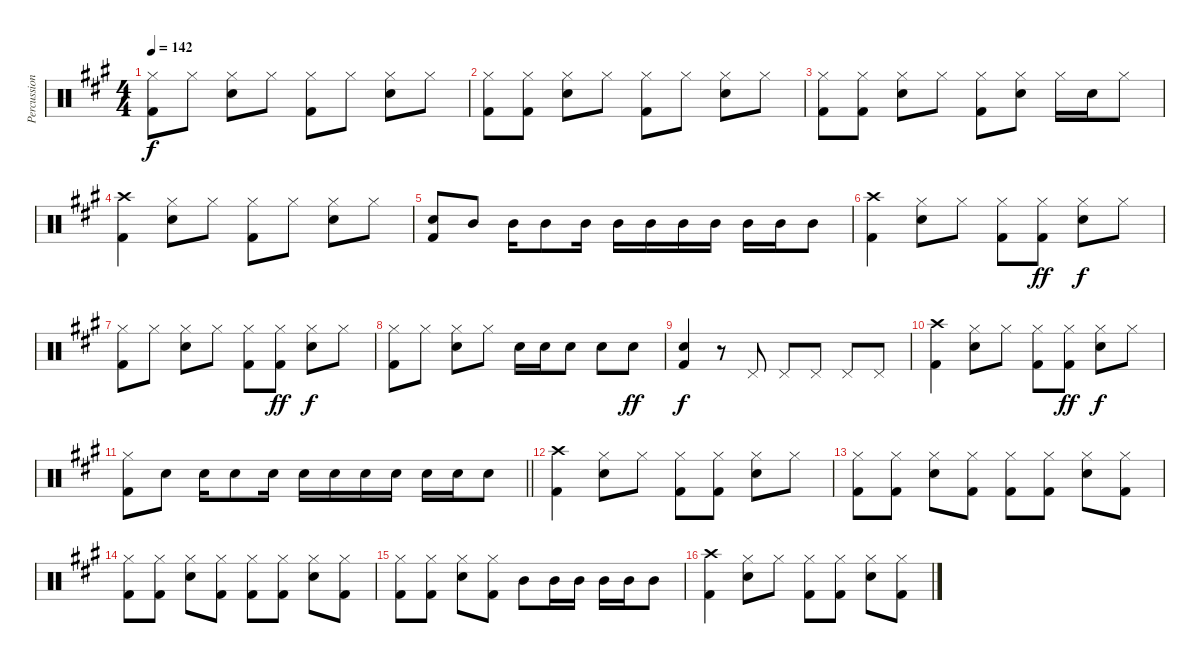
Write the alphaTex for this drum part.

\track ("Percussion" "Percussion") {instrument percussion}
\staff {score}
\articulation defaults
\ts (4 4)
\tempo 142
\clef neutral
\ks a
("Hi-Hat (closed)" "Kick (hit) 2").8{dy f} "Hi-Hat (closed)".8 ("Hi-Hat (closed)" "Snare (hit) 2").8 "Hi-Hat (closed)".8 ("Hi-Hat (closed)" "Kick (hit) 2").8 "Hi-Hat (closed)".8 ("Hi-Hat (closed)" "Snare (hit) 2").8 "Hi-Hat (closed)".8 |
("Hi-Hat (closed)" "Kick (hit) 2").8 ("Hi-Hat (closed)" "Kick (hit) 2").8 ("Hi-Hat (closed)" "Snare (hit) 2").8 "Hi-Hat (closed)".8 ("Hi-Hat (closed)" "Kick (hit) 2").8 "Hi-Hat (closed)".8 ("Hi-Hat (closed)" "Snare (hit) 2").8 "Hi-Hat (closed)".8 |
("Hi-Hat (closed)" "Kick (hit) 2").8 ("Hi-Hat (closed)" "Kick (hit) 2").8 ("Hi-Hat (closed)" "Snare (hit) 2").8 "Hi-Hat (closed)".8 ("Hi-Hat (closed)" "Kick (hit) 2").8 ("Hi-Hat (closed)" "Snare (hit) 2").8 "Hi-Hat (closed)".16 "Snare (hit) 2".16 "Hi-Hat (closed)".8 |
("Crash high (hit)" "Kick (hit) 2").4 ("Hi-Hat (closed)" "Snare (hit) 2").8 "Hi-Hat (closed)".8 ("Hi-Hat (closed)" "Kick (hit) 2").8 "Hi-Hat (closed)".8 ("Hi-Hat (closed)" "Snare (hit) 2").8 "Hi-Hat (closed)".8 |
("Snare (hit) 2" "Kick (hit) 2").8 "Mid Tom (hit)".8 "Mid Tom (hit)".16 "Mid Tom (hit)".8 "Mid Tom (hit)".16 "Mid Tom (hit)".16 "Mid Tom (hit)".16 "Mid Tom (hit)".16 "Mid Tom (hit)".16 "Mid Tom (hit)".16 "Mid Tom (hit)".16 "Mid Tom (hit)".8 |
("Crash high (hit)" "Kick (hit) 2").4 ("Hi-Hat (closed)" "Snare (hit) 2").8 "Hi-Hat (closed)".8 ("Hi-Hat (closed)" "Kick (hit) 2").8 ("Hi-Hat (closed)" "Kick (hit) 2").8{dy ff} ("Hi-Hat (closed)" "Snare (hit) 2").8{dy f} "Hi-Hat (closed)".8 |
("Hi-Hat (closed)" "Kick (hit) 2").8 "Hi-Hat (closed)".8 ("Hi-Hat (closed)" "Snare (hit) 2").8 "Hi-Hat (closed)".8 ("Hi-Hat (closed)" "Kick (hit) 2").8 ("Hi-Hat (closed)" "Kick (hit) 2").8{dy ff} ("Hi-Hat (closed)" "Snare (hit) 2").8{dy f} "Hi-Hat (closed)".8 |
("Hi-Hat (closed)" "Kick (hit) 2").8 "Hi-Hat (closed)".8 ("Hi-Hat (closed)" "Snare (hit) 2").8 "Hi-Hat (closed)".8 "Snare (hit) 2".16 "Snare (hit) 2".16 "Snare (hit) 2".8 "Snare (hit) 2".8 "Snare (hit) 2".8{dy ff} |
("Snare (hit) 2" "Kick (hit) 2").4{dy f} r.8 "Pedal Hi-Hat (hit)".8 "Pedal Hi-Hat (hit)".8 "Pedal Hi-Hat (hit)".8 "Pedal Hi-Hat (hit)".8 "Pedal Hi-Hat (hit)".8 |
("Crash high (hit)" "Kick (hit) 2").4 ("Hi-Hat (closed)" "Snare (hit) 2").8 "Hi-Hat (closed)".8 ("Hi-Hat (closed)" "Kick (hit) 2").8 ("Hi-Hat (closed)" "Kick (hit) 2").8{dy ff} ("Hi-Hat (closed)" "Snare (hit) 2").8{dy f} "Hi-Hat (closed)".8 |
\barLineRight lightlight
("Hi-Hat (closed)" "Kick (hit) 2").8 "Snare (hit) 2".8 "Snare (hit) 2".16 "Snare (hit) 2".8 "Snare (hit) 2".16 "Snare (hit) 2".16 "Snare (hit) 2".16 "Snare (hit) 2".16 "Snare (hit) 2".16 "Snare (hit) 2".16 "Snare (hit) 2".16 "Snare (hit) 2".8 |
("Crash high (hit)" "Kick (hit) 2").4 ("Hi-Hat (closed)" "Snare (hit) 2").8 "Hi-Hat (closed)".8 ("Hi-Hat (closed)" "Kick (hit) 2").8 ("Hi-Hat (closed)" "Kick (hit) 2").8 ("Hi-Hat (closed)" "Snare (hit) 2").8 "Hi-Hat (closed)".8 |
("Hi-Hat (closed)" "Kick (hit) 2").8 ("Hi-Hat (closed)" "Kick (hit) 2").8 ("Hi-Hat (closed)" "Snare (hit) 2").8 ("Hi-Hat (closed)" "Kick (hit) 2").8 ("Hi-Hat (closed)" "Kick (hit) 2").8 ("Hi-Hat (closed)" "Kick (hit) 2").8 ("Hi-Hat (closed)" "Snare (hit) 2").8 ("Hi-Hat (closed)" "Kick (hit) 2").8 |
("Hi-Hat (closed)" "Kick (hit) 2").8 ("Hi-Hat (closed)" "Kick (hit) 2").8 ("Hi-Hat (closed)" "Snare (hit) 2").8 ("Hi-Hat (closed)" "Kick (hit) 2").8 ("Hi-Hat (closed)" "Kick (hit) 2").8 ("Hi-Hat (closed)" "Kick (hit) 2").8 ("Hi-Hat (closed)" "Snare (hit) 2").8 ("Hi-Hat (closed)" "Kick (hit) 2").8 |
("Hi-Hat (closed)" "Kick (hit) 2").8 ("Hi-Hat (closed)" "Kick (hit) 2").8 ("Hi-Hat (closed)" "Snare (hit) 2").8 ("Hi-Hat (closed)" "Kick (hit) 2").8 "Mid Tom (hit)".8 "Mid Tom (hit)".16 "Mid Tom (hit)".16 "Mid Tom (hit)".16 "Mid Tom (hit)".16 "Mid Tom (hit)".8 |
("Crash high (hit)" "Kick (hit) 2").4 ("Hi-Hat (closed)" "Snare (hit) 2").8 "Hi-Hat (closed)".8 ("Hi-Hat (closed)" "Kick (hit) 2").8 ("Hi-Hat (closed)" "Kick (hit) 2").8 ("Hi-Hat (closed)" "Snare (hit) 2").8 ("Hi-Hat (closed)" "Kick (hit) 2").8
